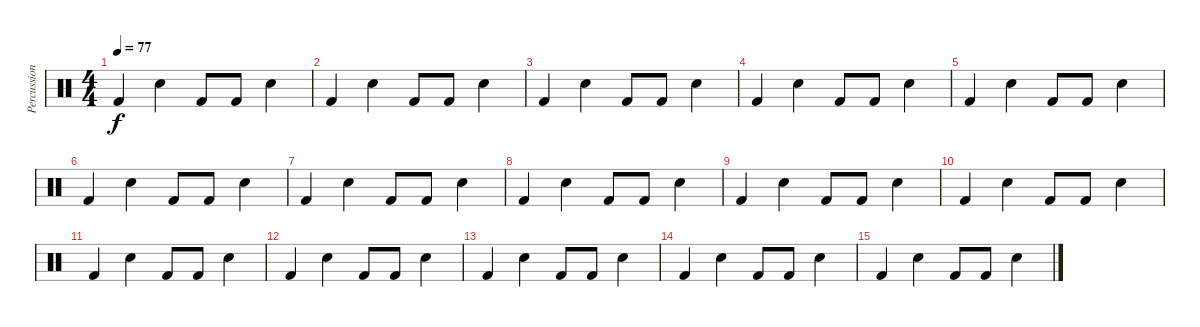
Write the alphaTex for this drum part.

\track ("Percussion" "Percussion") {instrument percussion}
\staff {score}
\articulation defaults
\ts (4 4)
\tempo 77
\clef neutral
\ks c "Kick (hit) 2".4{dy f} "Snare (hit) 2".4 "Kick (hit) 2".8 "Kick (hit) 2".8 "Snare (hit) 2".4
|
"Kick (hit) 2".4 "Snare (hit) 2".4 "Kick (hit) 2".8 "Kick (hit) 2".8 "Snare (hit) 2".4 |
"Kick (hit) 2".4 "Snare (hit) 2".4 "Kick (hit) 2".8 "Kick (hit) 2".8 "Snare (hit) 2".4 |
"Kick (hit) 2".4 "Snare (hit) 2".4 "Kick (hit) 2".8 "Kick (hit) 2".8 "Snare (hit) 2".4 |
"Kick (hit) 2".4 "Snare (hit) 2".4 "Kick (hit) 2".8 "Kick (hit) 2".8 "Snare (hit) 2".4 |
"Kick (hit) 2".4 "Snare (hit) 2".4 "Kick (hit) 2".8 "Kick (hit) 2".8 "Snare (hit) 2".4 |
"Kick (hit) 2".4 "Snare (hit) 2".4 "Kick (hit) 2".8 "Kick (hit) 2".8 "Snare (hit) 2".4 |
"Kick (hit) 2".4 "Snare (hit) 2".4 "Kick (hit) 2".8 "Kick (hit) 2".8 "Snare (hit) 2".4 |
"Kick (hit) 2".4 "Snare (hit) 2".4 "Kick (hit) 2".8 "Kick (hit) 2".8 "Snare (hit) 2".4 |
"Kick (hit) 2".4 "Snare (hit) 2".4 "Kick (hit) 2".8 "Kick (hit) 2".8 "Snare (hit) 2".4 |
"Kick (hit) 2".4 "Snare (hit) 2".4 "Kick (hit) 2".8 "Kick (hit) 2".8 "Snare (hit) 2".4 |
"Kick (hit) 2".4 "Snare (hit) 2".4 "Kick (hit) 2".8 "Kick (hit) 2".8 "Snare (hit) 2".4 |
"Kick (hit) 2".4 "Snare (hit) 2".4 "Kick (hit) 2".8 "Kick (hit) 2".8 "Snare (hit) 2".4 |
"Kick (hit) 2".4 "Snare (hit) 2".4 "Kick (hit) 2".8 "Kick (hit) 2".8 "Snare (hit) 2".4 |
"Kick (hit) 2".4 "Snare (hit) 2".4 "Kick (hit) 2".8 "Kick (hit) 2".8 "Snare (hit) 2".4
